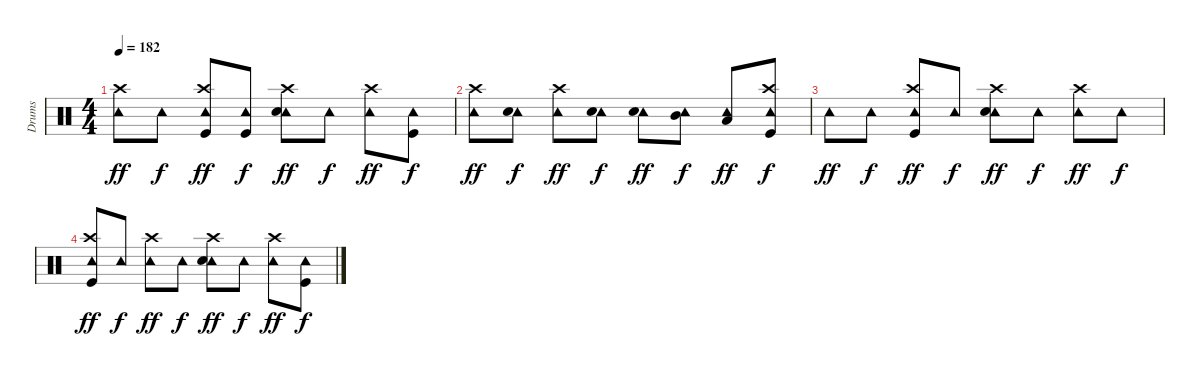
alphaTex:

\track ("Drums" "Drums") {instrument percussion}
\staff {score}
\articulation defaults
\ts (4 4)
\tempo 182
\clef neutral
\ks c
("Tambourine (hit)" "Crash high (hit)").8{dy ff} "Tambourine (hit)".8{dy f} ("Tambourine (hit)" "Crash high (hit)" "Kick (hit)").8{dy ff} ("Tambourine (hit)" "Kick (hit)").8{dy f} ("Tambourine (hit)" "Crash high (hit)" "Electric Snare (hit)").8{dy ff} "Tambourine (hit)".8{dy f} ("Tambourine (hit)" "Crash high (hit)").8{dy ff} ("Tambourine (hit)" "Kick (hit)").8{dy f} |
("Tambourine (hit)" "Crash high (hit)").8{dy ff} ("Tambourine (hit)" "Electric Snare (hit)").8{dy f} ("Tambourine (hit)" "Crash high (hit)").8{dy ff} ("Tambourine (hit)" "Electric Snare (hit)").8{dy f} ("Tambourine (hit)" "Electric Snare (hit)").8{dy ff} ("Tambourine (hit)" "Mid Tom (hit)").8{dy f} ("Tambourine (hit)" "Low Tom (hit)").8{dy ff} ("Tambourine (hit)" "Crash high (hit)" "Kick (hit)").8{dy f} |
"Tambourine (hit)".8{dy ff} "Tambourine (hit)".8{dy f} ("Tambourine (hit)" "Crash high (hit)" "Kick (hit)").8{dy ff} "Tambourine (hit)".8{dy f} ("Tambourine (hit)" "Crash high (hit)" "Electric Snare (hit)").8{dy ff} "Tambourine (hit)".8{dy f} ("Tambourine (hit)" "Crash high (hit)").8{dy ff} "Tambourine (hit)".8{dy f} |
("Tambourine (hit)" "Kick (hit)" "Crash high (hit)").8{dy ff} "Tambourine (hit)".8{dy f} ("Tambourine (hit)" "Crash high (hit)").8{dy ff} "Tambourine (hit)".8{dy f} ("Tambourine (hit)" "Crash high (hit)" "Electric Snare (hit)").8{dy ff} "Tambourine (hit)".8{dy f} ("Tambourine (hit)" "Crash high (hit)").8{dy ff} ("Tambourine (hit)" "Kick (hit)").8{dy f}
